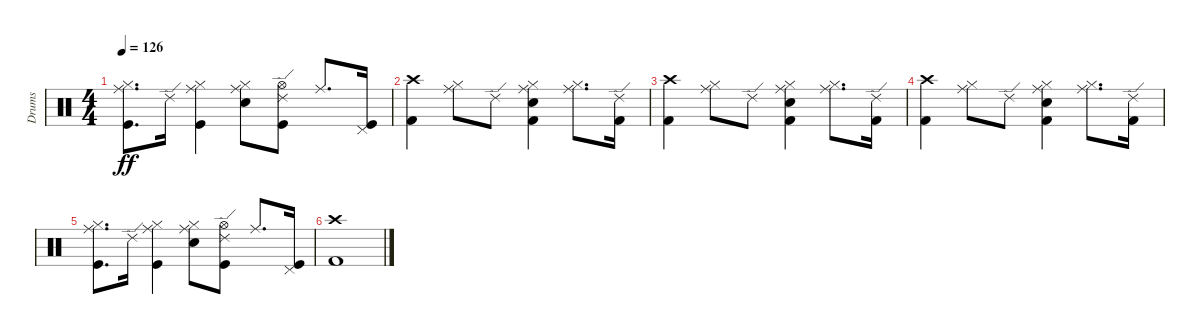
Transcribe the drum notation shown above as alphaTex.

\track ("Drums" "Drums") {instrument percussion}
\staff {score}
\articulation defaults
\ts (4 4)
\tempo 126
\clef neutral
\ks c
("Kick (hit)" "Hi-Hat (closed)" "Ride (middle)").8{d dy ff} "Ride (edge) 2".16 ("Kick (hit)" "Hi-Hat (closed)" "Ride (middle)").4 ("Snare (hit) 2" "Hi-Hat (closed)" "Ride (middle)").8 ("Kick (hit)" "Hi-Hat (open)" "Ride (edge) 2").8 "Ride (middle)".8{d} ("Kick (hit)" "Pedal Hi-Hat (hit)").16 |
("Crash high (hit)" "Kick (hit) 2").4 ("Ride (middle)" "Hi-Hat (closed)").8 "Ride (edge) 2".8 ("Ride (middle)" "Hi-Hat (closed)" "Snare (hit) 2" "Kick (hit) 2").4 ("Ride (middle)" "Hi-Hat (closed)").8{d} ("Ride (edge) 2" "Kick (hit) 2").16 |
("Crash high (hit)" "Kick (hit) 2").4{volume 0} ("Ride (middle)" "Hi-Hat (closed)").8 "Ride (edge) 2".8 ("Ride (middle)" "Hi-Hat (closed)" "Snare (hit) 2" "Kick (hit) 2").4 ("Ride (middle)" "Hi-Hat (closed)").8{d} ("Ride (edge) 2" "Kick (hit) 2").16 |
("Crash high (hit)" "Kick (hit) 2").4 ("Ride (middle)" "Hi-Hat (closed)").8 "Ride (edge) 2".8 ("Ride (middle)" "Hi-Hat (closed)" "Snare (hit) 2" "Kick (hit) 2").4 ("Ride (middle)" "Hi-Hat (closed)").8{d} ("Ride (edge) 2" "Kick (hit) 2").16 |
("Kick (hit)" "Hi-Hat (closed)" "Ride (middle)").8{d} "Ride (edge) 2".16 ("Kick (hit)" "Hi-Hat (closed)" "Ride (middle)").4 ("Snare (hit) 2" "Hi-Hat (closed)" "Ride (middle)").8 ("Kick (hit)" "Hi-Hat (open)" "Ride (edge) 2").8 "Ride (middle)".8{d} ("Kick (hit)" "Pedal Hi-Hat (hit)").16 |
("Crash high (hit)" "Kick (hit) 2").1
